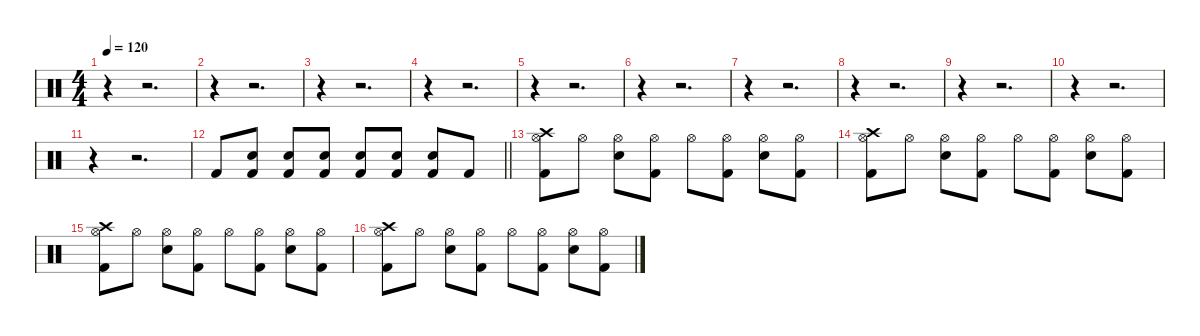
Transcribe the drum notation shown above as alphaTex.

\defaultSystemsLayout 4
\hideDynamics
\bracketExtendMode nobrackets
\singleTrackTrackNamePolicy hidden
\multiTrackTrackNamePolicy hidden
\otherSystemsTrackNameOrientation horizontal
\track ("Percussion" "drm.") {instrument percussion}
\staff {score}
\articulation defaults
\ts (4 4)
\tempo 120
\clef neutral
\ks c
r.4{dy f beam Down} r.2{d beam Down} |
r.4{beam Down} r.2{d beam Down} |
r.4{beam Down} r.2{d beam Down} |
r.4{beam Down} r.2{d beam Down} |
r.4{beam Down} r.2{d beam Down} |
r.4{beam Down} r.2{d beam Down} |
r.4{beam Down} r.2{d beam Down} |
r.4{beam Down} r.2{d beam Down} |
r.4{beam Down} r.2{d beam Down} |
r.4{beam Down} r.2{d beam Down} |
r.4{beam Down} r.2{d beam Down} |
\barLineRight lightlight "Kick (hit) 2".8{beam Up}
("Snare (hit) 2" "Kick (hit) 2").8{beam Up} ("Snare (hit) 2" "Kick (hit) 2").8{beam Up} ("Kick (hit) 2" "Snare (hit) 2").8{beam Up} ("Snare (hit) 2" "Kick (hit) 2").8{beam Up} ("Snare (hit) 2" "Kick (hit) 2").8{beam Up} ("Kick (hit) 2" "Snare (hit) 2").8{beam Up} "Kick (hit) 2".8{beam Up} |
("Kick (hit) 2" "Hi-Hat (open)" "Crash high (hit)").8{beam Down} "Hi-Hat (open)".8{beam Down} ("Snare (hit) 2" "Hi-Hat (open)").8{beam Down} ("Kick (hit) 2" "Hi-Hat (open)").8{beam Down} "Hi-Hat (open)".8{beam Down} ("Kick (hit) 2" "Hi-Hat (open)").8{beam Down} ("Snare (hit) 2" "Hi-Hat (open)").8{beam Down} ("Kick (hit) 2" "Hi-Hat (open)").8{beam Down} |
("Kick (hit) 2" "Hi-Hat (open)" "Crash high (hit)").8{beam Down} "Hi-Hat (open)".8{beam Down} ("Snare (hit) 2" "Hi-Hat (open)").8{beam Down} ("Kick (hit) 2" "Hi-Hat (open)").8{beam Down} "Hi-Hat (open)".8{beam Down} ("Kick (hit) 2" "Hi-Hat (open)").8{beam Down} ("Snare (hit) 2" "Hi-Hat (open)").8{beam Down} ("Kick (hit) 2" "Hi-Hat (open)").8{beam Down} |
("Kick (hit) 2" "Hi-Hat (open)" "Crash high (hit)").8{beam Down} "Hi-Hat (open)".8{beam Down} ("Snare (hit) 2" "Hi-Hat (open)").8{beam Down} ("Kick (hit) 2" "Hi-Hat (open)").8{beam Down} "Hi-Hat (open)".8{beam Down} ("Kick (hit) 2" "Hi-Hat (open)").8{beam Down} ("Snare (hit) 2" "Hi-Hat (open)").8{beam Down} ("Kick (hit) 2" "Hi-Hat (open)").8{beam Down} |
("Kick (hit) 2" "Hi-Hat (open)" "Crash high (hit)").8{beam Down} "Hi-Hat (open)".8{beam Down} ("Snare (hit) 2" "Hi-Hat (open)").8{beam Down} ("Kick (hit) 2" "Hi-Hat (open)").8{beam Down} "Hi-Hat (open)".8{beam Down} ("Kick (hit) 2" "Hi-Hat (open)").8{beam Down} ("Snare (hit) 2" "Hi-Hat (open)").8{beam Down} ("Kick (hit) 2" "Hi-Hat (open)").8{beam Down}
